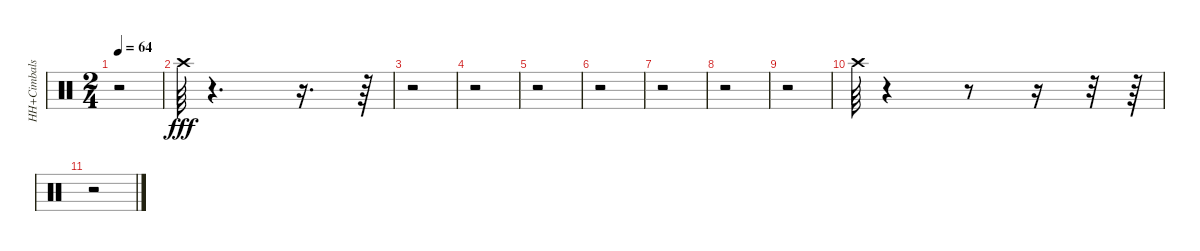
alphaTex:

\track ("HH+Cimbals" "HH+Cimbals") {instrument percussion}
\staff {score}
\articulation defaults
\ts (2 4)
\tempo 64
\clef neutral
\ks c
r.2{dy fff} |
"Crash high (hit)".64 r.4{d} r.16{d} r.64 |
r.2 |
r.2 |
r.2 |
r.2 |
r.2 |
r.2 |
r.2 |
"Crash high (hit)".64 r.4 r.8 r.16 r.32 r.64 |
r.2
